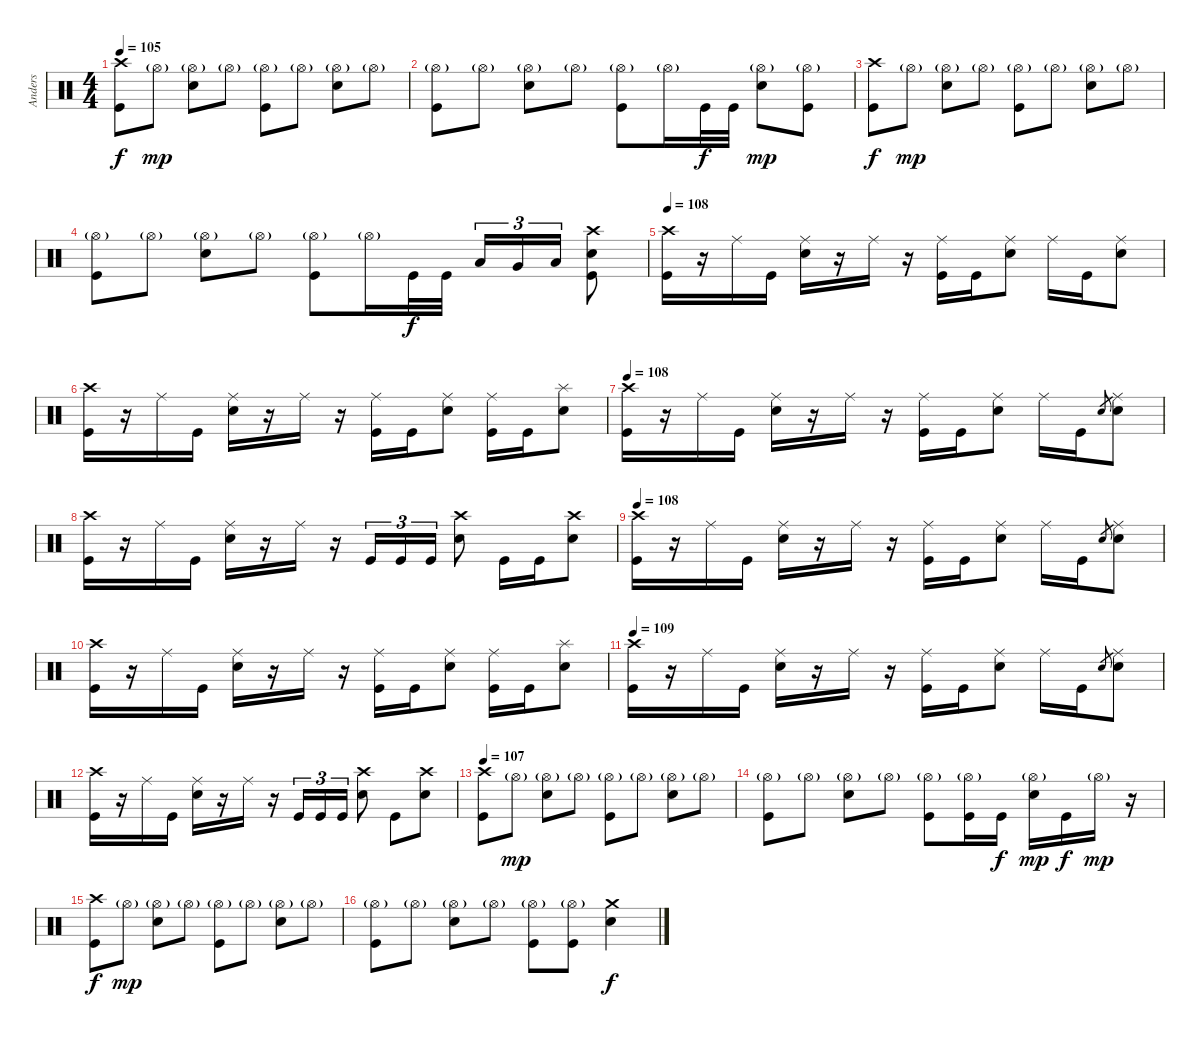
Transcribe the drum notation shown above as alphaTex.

\track ("Anders" "Anders") {instrument percussion}
\staff {score}
\articulation defaults
\ts (4 4)
\tempo 105
\clef neutral
\ks c
("Crash high (hit)" "Kick (hit)").8{dy f} "Hi-Hat (open)"{g}.8{dy mp} ("Hi-Hat (open)"{g} "Snare (hit) 2").8 "Hi-Hat (open)"{g}.8 ("Hi-Hat (open)"{g} "Kick (hit)").8 "Hi-Hat (open)"{g}.8 ("Hi-Hat (open)"{g} "Snare (hit) 2").8 "Hi-Hat (open)"{g}.8 |
("Hi-Hat (open)"{g} "Kick (hit)").8 "Hi-Hat (open)"{g}.8 ("Hi-Hat (open)"{g} "Snare (hit) 2").8 "Hi-Hat (open)"{g}.8 ("Hi-Hat (open)"{g} "Kick (hit)").8 "Hi-Hat (open)"{g}.16 "Kick (hit)".32{dy f} "Kick (hit)".32 ("Hi-Hat (open)"{g} "Snare (hit) 2").8{dy mp} ("Hi-Hat (open)"{g} "Kick (hit)").8 |
("Crash high (hit)" "Kick (hit)").8{dy f} "Hi-Hat (open)"{g}.8{dy mp} ("Hi-Hat (open)"{g} "Snare (hit) 2").8 "Hi-Hat (open)"{g}.8 ("Hi-Hat (open)"{g} "Kick (hit)").8 "Hi-Hat (open)"{g}.8 ("Hi-Hat (open)"{g} "Snare (hit) 2").8 "Hi-Hat (open)"{g}.8 |
("Hi-Hat (open)"{g} "Kick (hit)").8 "Hi-Hat (open)"{g}.8 ("Hi-Hat (open)"{g} "Snare (hit) 2").8 "Hi-Hat (open)"{g}.8 ("Hi-Hat (open)"{g} "Kick (hit)").8 "Hi-Hat (open)"{g}.16 "Kick (hit)".32{dy f} "Kick (hit)".32 "Low Tom (hit)".16{tu (3 2)} "Very Low Tom (hit)".16{tu (3 2)} "Low Floor Tom (hit)".16{tu (3 2)} ("Crash high (hit)" "Snare (hit) 2" "Kick (hit)").8 |
\tempo 109
\tempo 108
("Crash high (hit)" "Kick (hit)").16 r.16 "Ride (middle)".16 "Kick (hit)".16 ("Ride (middle)" "Snare (hit) 2").16 r.16 "Ride (middle)".16 r.16 ("Ride (middle)" "Kick (hit)").16 "Kick (hit)".16 ("Ride (middle)" "Snare (hit) 2").8 "Ride (middle)".16 "Kick (hit)".16 ("Ride (middle)" "Snare (hit) 2").8 |
("Crash high (hit)" "Kick (hit)").16 r.16 "Ride (middle)".16 "Kick (hit)".16 ("Ride (middle)" "Snare (hit) 2").16 r.16 "Ride (middle)".16 r.16 ("Ride (middle)" "Kick (hit)").16 "Kick (hit)".16 ("Ride (middle)" "Snare (hit) 2").8 ("Ride (middle)" "Kick (hit)").16 "Kick (hit)".16 ("Splash (hit)" "Snare (hit) 2").8 |
\tempo 109
\tempo 108
("Crash high (hit)" "Kick (hit)").16 r.16 "Ride (middle)".16 "Kick (hit)".16 ("Ride (middle)" "Snare (hit) 2").16 r.16 "Ride (middle)".16 r.16 ("Ride (middle)" "Kick (hit)").16 "Kick (hit)".16 ("Ride (middle)" "Snare (hit) 2").8 "Ride (middle)".16 "Kick (hit)".16 "Snare (hit) 2".8{gr} ("Ride (middle)" "Snare (hit) 2").8 |
("Crash high (hit)" "Kick (hit)").16 r.16 "Ride (middle)".16 "Kick (hit)".16 ("Ride (middle)" "Snare (hit) 2").16 r.16 "Ride (middle)".16 r.16 "Kick (hit)".16{tu (3 2)} "Kick (hit)".16{tu (3 2)} "Kick (hit)".16{tu (3 2)} ("Crash high (hit)" "Snare (hit) 2").8 "Kick (hit)".16 "Kick (hit)".16 ("Crash high (hit)" "Snare (hit) 2").8 |
\tempo 109
\tempo 108
("Crash high (hit)" "Kick (hit)").16 r.16 "Ride (middle)".16 "Kick (hit)".16 ("Ride (middle)" "Snare (hit) 2").16 r.16 "Ride (middle)".16 r.16 ("Ride (middle)" "Kick (hit)").16 "Kick (hit)".16 ("Ride (middle)" "Snare (hit) 2").8 "Ride (middle)".16 "Kick (hit)".16 "Snare (hit) 2".8{gr} ("Ride (middle)" "Snare (hit) 2").8 |
("Crash high (hit)" "Kick (hit)").16 r.16 "Ride (middle)".16 "Kick (hit)".16 ("Ride (middle)" "Snare (hit) 2").16 r.16 "Ride (middle)".16 r.16 ("Ride (middle)" "Kick (hit)").16 "Kick (hit)".16 ("Ride (middle)" "Snare (hit) 2").8 ("Ride (middle)" "Kick (hit)").16 "Kick (hit)".16 ("Splash (hit)" "Snare (hit) 2").8 |
\tempo 109
("Crash high (hit)" "Kick (hit)").16 r.16 "Ride (middle)".16 "Kick (hit)".16 ("Ride (middle)" "Snare (hit) 2").16 r.16 "Ride (middle)".16 r.16 ("Ride (middle)" "Kick (hit)").16 "Kick (hit)".16 ("Ride (middle)" "Snare (hit) 2").8 "Ride (middle)".16 "Kick (hit)".16 "Snare (hit) 2".8{gr} ("Ride (middle)" "Snare (hit) 2").8 |
("Crash high (hit)" "Kick (hit)").16 r.16 "Ride (middle)".16 "Kick (hit)".16 ("Ride (middle)" "Snare (hit) 2").16 r.16 "Ride (middle)".16 r.16 "Kick (hit)".16{tu (3 2)} "Kick (hit)".16{tu (3 2)} "Kick (hit)".16{tu (3 2)} ("Crash high (hit)" "Snare (hit) 2").8 "Kick (hit)".8 ("Crash high (hit)" "Snare (hit) 2").8 |
\tempo 110
\tempo 107
("Crash high (hit)" "Kick (hit)").8 "Hi-Hat (open)"{g}.8{dy mp} ("Hi-Hat (open)"{g} "Snare (hit) 2").8 "Hi-Hat (open)"{g}.8 ("Hi-Hat (open)"{g} "Kick (hit)").8 "Hi-Hat (open)"{g}.8 ("Hi-Hat (open)"{g} "Snare (hit) 2").8 "Hi-Hat (open)"{g}.8 |
("Hi-Hat (open)"{g} "Kick (hit)").8 "Hi-Hat (open)"{g}.8 ("Hi-Hat (open)"{g} "Snare (hit) 2").8 "Hi-Hat (open)"{g}.8 ("Hi-Hat (open)"{g} "Kick (hit)").8 ("Hi-Hat (open)"{g} "Kick (hit)").16 "Kick (hit)".16{dy f} ("Hi-Hat (open)"{g} "Snare (hit) 2").16{dy mp} "Kick (hit)".16{dy f} "Hi-Hat (open)"{g}.16{dy mp} r.16 |
("Crash high (hit)" "Kick (hit)").8{dy f} "Hi-Hat (open)"{g}.8{dy mp} ("Hi-Hat (open)"{g} "Snare (hit) 2").8 "Hi-Hat (open)"{g}.8 ("Hi-Hat (open)"{g} "Kick (hit)").8 "Hi-Hat (open)"{g}.8 ("Hi-Hat (open)"{g} "Snare (hit) 2").8 "Hi-Hat (open)"{g}.8 |
("Hi-Hat (open)"{g} "Kick (hit)").8 "Hi-Hat (open)"{g}.8 ("Hi-Hat (open)"{g} "Snare (hit) 2").8 "Hi-Hat (open)"{g}.8 ("Hi-Hat (open)"{g} "Kick (hit)").8 ("Hi-Hat (open)"{g} "Kick (hit)").8 ("Crash medium (hit)" "Snare (hit) 2").4{dy f}
